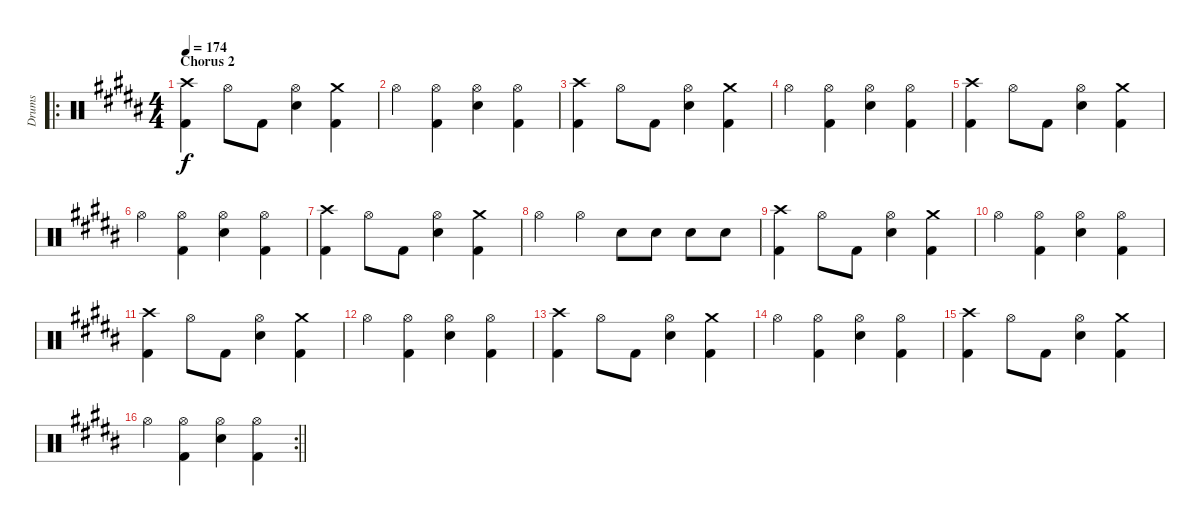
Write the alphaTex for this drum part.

\track ("Drums" "Drums") {instrument percussion}
\staff {score}
\articulation defaults
\ro
\ts (4 4)
\section ("" "Chorus 2")
\tempo 174
\clef neutral
\ks g#minor
("Crash high (hit)" "Kick (hit) 2").4{dy f} "Hi-Hat (open)".8 "Kick (hit) 2".8 ("Hi-Hat (open)" "Electric Snare (hit)").4 ("Crash medium (hit)" "Kick (hit) 2").4 |
"Hi-Hat (open)".4 ("Hi-Hat (open)" "Kick (hit) 2").4 ("Hi-Hat (open)" "Electric Snare (hit)").4 ("Hi-Hat (open)" "Kick (hit) 2").4 |
("Crash high (hit)" "Kick (hit) 2").4 "Hi-Hat (open)".8 "Kick (hit) 2".8 ("Hi-Hat (open)" "Electric Snare (hit)").4 ("Crash medium (hit)" "Kick (hit) 2").4 |
"Hi-Hat (open)".4 ("Hi-Hat (open)" "Kick (hit) 2").4 ("Hi-Hat (open)" "Electric Snare (hit)").4 ("Hi-Hat (open)" "Kick (hit) 2").4 |
("Crash high (hit)" "Kick (hit) 2").4 "Hi-Hat (open)".8 "Kick (hit) 2".8 ("Hi-Hat (open)" "Electric Snare (hit)").4 ("Crash medium (hit)" "Kick (hit) 2").4 |
"Hi-Hat (open)".4 ("Hi-Hat (open)" "Kick (hit) 2").4 ("Hi-Hat (open)" "Electric Snare (hit)").4 ("Hi-Hat (open)" "Kick (hit) 2").4 |
("Crash high (hit)" "Kick (hit) 2").4 "Hi-Hat (open)".8 "Kick (hit) 2".8 ("Hi-Hat (open)" "Electric Snare (hit)").4 ("Crash medium (hit)" "Kick (hit) 2").4 |
"Hi-Hat (open)".4 "Hi-Hat (open)".4 "Electric Snare (hit)".8 "Electric Snare (hit)".8 "Electric Snare (hit)".8 "Electric Snare (hit)".8 |
("Crash high (hit)" "Kick (hit) 2").4 "Hi-Hat (open)".8 "Kick (hit) 2".8 ("Hi-Hat (open)" "Electric Snare (hit)").4 ("Crash medium (hit)" "Kick (hit) 2").4 |
"Hi-Hat (open)".4 ("Hi-Hat (open)" "Kick (hit) 2").4 ("Hi-Hat (open)" "Electric Snare (hit)").4 ("Hi-Hat (open)" "Kick (hit) 2").4 |
("Crash high (hit)" "Kick (hit) 2").4 "Hi-Hat (open)".8 "Kick (hit) 2".8 ("Hi-Hat (open)" "Electric Snare (hit)").4 ("Crash medium (hit)" "Kick (hit) 2").4 |
"Hi-Hat (open)".4 ("Hi-Hat (open)" "Kick (hit) 2").4 ("Hi-Hat (open)" "Electric Snare (hit)").4 ("Hi-Hat (open)" "Kick (hit) 2").4 |
("Crash high (hit)" "Kick (hit) 2").4 "Hi-Hat (open)".8 "Kick (hit) 2".8 ("Hi-Hat (open)" "Electric Snare (hit)").4 ("Crash medium (hit)" "Kick (hit) 2").4 |
"Hi-Hat (open)".4 ("Hi-Hat (open)" "Kick (hit) 2").4 ("Hi-Hat (open)" "Electric Snare (hit)").4 ("Hi-Hat (open)" "Kick (hit) 2").4 |
("Crash high (hit)" "Kick (hit) 2").4 "Hi-Hat (open)".8 "Kick (hit) 2".8 ("Hi-Hat (open)" "Electric Snare (hit)").4 ("Crash medium (hit)" "Kick (hit) 2").4 |
\rc 2
\barLineRight lightlight "Hi-Hat (open)".4
("Hi-Hat (open)" "Kick (hit) 2").4 ("Hi-Hat (open)" "Electric Snare (hit)").4 ("Hi-Hat (open)" "Kick (hit) 2").4
